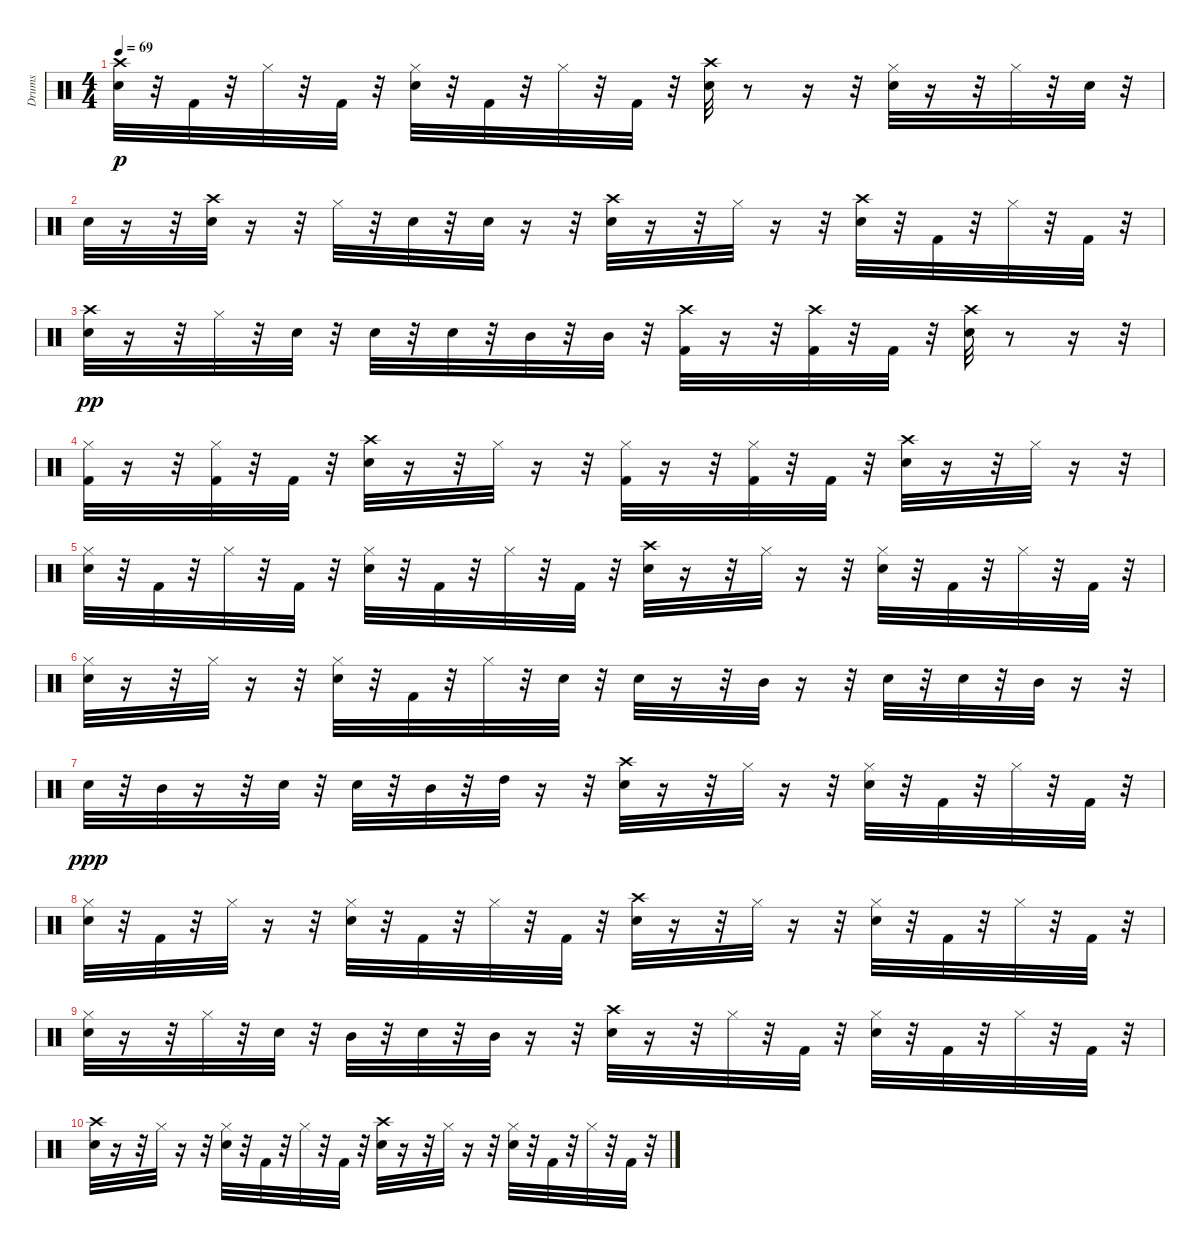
\track ("Drums" "Drums") {instrument percussion}
\staff {score}
\articulation defaults
\ts (4 4)
\tempo 69
\clef neutral
\ks c
("Snare (hit) 2" "Crash high (hit)").32{dy p} r.32 "Kick (hit) 2".32 r.32 "Hi-Hat (closed)".32 r.32 "Kick (hit) 2".32 r.32 ("Snare (hit) 2" "Hi-Hat (closed)").32 r.32 "Kick (hit) 2".32 r.32 "Hi-Hat (closed)".32 r.32 "Kick (hit) 2".32 r.32 ("Crash high (hit)" "Snare (hit) 2").32 r.8 r.16 r.32 ("Hi-Hat (closed)" "Snare (hit) 2").32 r.16 r.32 "Hi-Hat (closed)".32 r.32 "Snare (hit) 2".32 r.32 |
"Snare (hit) 2".32 r.16 r.32 ("Crash high (hit)" "Snare (hit) 2").32 r.16 r.32 "Hi-Hat (closed)".32 r.32 "Snare (hit) 2".32 r.32 "Snare (hit) 2".32 r.16 r.32 ("Crash high (hit)" "Snare (hit) 2").32 r.16 r.32 "Hi-Hat (closed)".32 r.16 r.32 ("Crash high (hit)" "Snare (hit) 2").32 r.32 "Kick (hit) 2".32 r.32 "Hi-Hat (closed)".32 r.32 "Kick (hit) 2".32 r.32 |
("Crash high (hit)" "Snare (hit) 2").32{dy pp} r.16 r.32 "Hi-Hat (closed)".32 r.32 "Snare (hit) 2".32 r.32 "Snare (hit) 2".32 r.32 "Snare (hit) 2".32 r.32 "Mid Tom (hit)".32 r.32 "Mid Tom (hit)".32 r.32 ("Crash high (hit)" "Kick (hit) 2").32 r.16 r.32 ("Crash high (hit)" "Kick (hit) 2").32 r.32 "Kick (hit) 2".32 r.32 ("Crash high (hit)" "Snare (hit) 2").32 r.8 r.16 r.32 |
("Hi-Hat (closed)" "Kick (hit) 2").32 r.16 r.32 ("Hi-Hat (closed)" "Kick (hit) 2").32 r.32 "Kick (hit) 2".32 r.32 ("Crash high (hit)" "Snare (hit) 2").32 r.16 r.32 "Hi-Hat (closed)".32 r.16 r.32 ("Hi-Hat (closed)" "Kick (hit) 2").32 r.16 r.32 ("Hi-Hat (closed)" "Kick (hit) 2").32 r.32 "Kick (hit) 2".32 r.32 ("Crash high (hit)" "Snare (hit) 2").32 r.16 r.32 "Hi-Hat (closed)".32 r.16 r.32 |
("Snare (hit) 2" "Hi-Hat (closed)").32 r.32 "Kick (hit) 2".32 r.32 "Hi-Hat (closed)".32 r.32 "Kick (hit) 2".32 r.32 ("Snare (hit) 2" "Hi-Hat (closed)").32 r.32 "Kick (hit) 2".32 r.32 "Hi-Hat (closed)".32 r.32 "Kick (hit) 2".32 r.32 ("Crash high (hit)" "Snare (hit) 2").32 r.16 r.32 "Hi-Hat (closed)".32 r.16 r.32 ("Snare (hit) 2" "Hi-Hat (closed)").32 r.32 "Kick (hit) 2".32 r.32 "Hi-Hat (closed)".32 r.32 "Kick (hit) 2".32 r.32 |
("Hi-Hat (closed)" "Snare (hit) 2").32 r.16 r.32 "Hi-Hat (closed)".32 r.16 r.32 ("Hi-Hat (closed)" "Snare (hit) 2").32 r.32 "Kick (hit) 2".32 r.32 "Hi-Hat (closed)".32 r.32 "Snare (hit) 2".32 r.32 "Snare (hit) 2".32 r.16 r.32 "Mid Tom (hit)".32 r.16 r.32 "Snare (hit) 2".32 r.32 "Snare (hit) 2".32 r.32 "Mid Tom (hit)".32 r.16 r.32 |
"Snare (hit) 2".32{dy ppp} r.32 "Mid Tom (hit)".32 r.16 r.32 "Snare (hit) 2".32 r.32 "Snare (hit) 2".32 r.32 "Mid Tom (hit)".32 r.32 "High Tom (hit)".32 r.16 r.32 ("Crash high (hit)" "Snare (hit) 2").32 r.16 r.32 "Hi-Hat (closed)".32 r.16 r.32 ("Snare (hit) 2" "Hi-Hat (closed)").32 r.32 "Kick (hit) 2".32 r.32 "Hi-Hat (closed)".32 r.32 "Kick (hit) 2".32 r.32 |
("Hi-Hat (closed)" "Snare (hit) 2").32 r.32 "Kick (hit) 2".32 r.32 "Hi-Hat (closed)".32 r.16 r.32 ("Snare (hit) 2" "Hi-Hat (closed)").32 r.32 "Kick (hit) 2".32 r.32 "Hi-Hat (closed)".32 r.32 "Kick (hit) 2".32 r.32 ("Crash high (hit)" "Snare (hit) 2").32 r.16 r.32 "Hi-Hat (closed)".32 r.16 r.32 ("Snare (hit) 2" "Hi-Hat (closed)").32 r.32 "Kick (hit) 2".32 r.32 "Hi-Hat (closed)".32 r.32 "Kick (hit) 2".32 r.32 |
("Hi-Hat (closed)" "Snare (hit) 2").32 r.16 r.32 "Hi-Hat (closed)".32 r.32 "Snare (hit) 2".32 r.32 "Mid Tom (hit)".32 r.32 "Snare (hit) 2".32 r.32 "Mid Tom (hit)".32 r.16 r.32 ("Crash high (hit)" "Snare (hit) 2").32 r.16 r.32 "Hi-Hat (closed)".32 r.32 "Kick (hit) 2".32 r.32 ("Snare (hit) 2" "Hi-Hat (closed)").32 r.32 "Kick (hit) 2".32 r.32 "Hi-Hat (closed)".32 r.32 "Kick (hit) 2".32 r.32 |
("Crash high (hit)" "Snare (hit) 2").32 r.16 r.32 "Hi-Hat (closed)".32 r.16 r.32 ("Snare (hit) 2" "Hi-Hat (closed)").32 r.32 "Kick (hit) 2".32 r.32 "Hi-Hat (closed)".32 r.32 "Kick (hit) 2".32 r.32 ("Crash high (hit)" "Snare (hit) 2").32 r.16 r.32 "Hi-Hat (closed)".32 r.16 r.32 ("Snare (hit) 2" "Hi-Hat (closed)").32 r.32 "Kick (hit) 2".32 r.32 "Hi-Hat (closed)".32 r.32 "Kick (hit) 2".32 r.32
